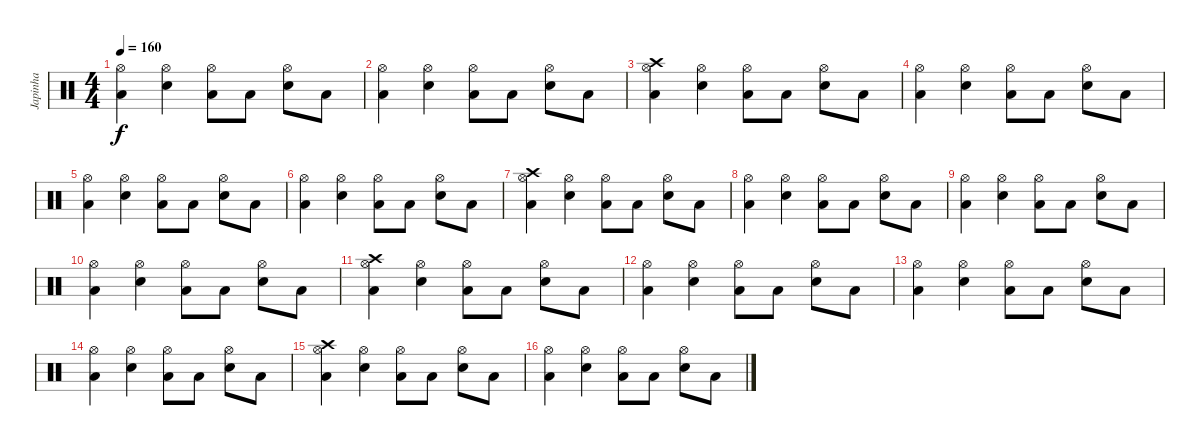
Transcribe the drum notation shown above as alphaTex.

\track ("Japinha" "Japinha") {instrument percussion}
\staff {score}
\articulation defaults
\ts (4 4)
\tempo 160
\clef neutral
\ks c
("Hi-Hat (open)" "Low Tom (hit)").4{dy f} ("Hi-Hat (open)" "Snare (hit) 2").4 ("Hi-Hat (open)" "Low Tom (hit)").8 "Low Tom (hit)".8 ("Hi-Hat (open)" "Snare (hit) 2").8 "Low Tom (hit)".8 |
("Hi-Hat (open)" "Low Tom (hit)").4 ("Hi-Hat (open)" "Snare (hit) 2").4 ("Hi-Hat (open)" "Low Tom (hit)").8 "Low Tom (hit)".8 ("Hi-Hat (open)" "Snare (hit) 2").8 "Low Tom (hit)".8 |
("Crash high (hit)" "Hi-Hat (open)" "Low Tom (hit)").4 ("Hi-Hat (open)" "Snare (hit) 2").4 ("Hi-Hat (open)" "Low Tom (hit)").8 "Low Tom (hit)".8 ("Hi-Hat (open)" "Snare (hit) 2").8 "Low Tom (hit)".8 |
("Hi-Hat (open)" "Low Tom (hit)").4 ("Hi-Hat (open)" "Snare (hit) 2").4 ("Hi-Hat (open)" "Low Tom (hit)").8 "Low Tom (hit)".8 ("Hi-Hat (open)" "Snare (hit) 2").8 "Low Tom (hit)".8 |
("Hi-Hat (open)" "Low Tom (hit)").4 ("Hi-Hat (open)" "Snare (hit) 2").4 ("Hi-Hat (open)" "Low Tom (hit)").8 "Low Tom (hit)".8 ("Hi-Hat (open)" "Snare (hit) 2").8 "Low Tom (hit)".8 |
("Hi-Hat (open)" "Low Tom (hit)").4 ("Hi-Hat (open)" "Snare (hit) 2").4 ("Hi-Hat (open)" "Low Tom (hit)").8 "Low Tom (hit)".8 ("Hi-Hat (open)" "Snare (hit) 2").8 "Low Tom (hit)".8 |
("Crash high (hit)" "Hi-Hat (open)" "Low Tom (hit)").4 ("Hi-Hat (open)" "Snare (hit) 2").4 ("Hi-Hat (open)" "Low Tom (hit)").8 "Low Tom (hit)".8 ("Hi-Hat (open)" "Snare (hit) 2").8 "Low Tom (hit)".8 |
("Hi-Hat (open)" "Low Tom (hit)").4 ("Hi-Hat (open)" "Snare (hit) 2").4 ("Hi-Hat (open)" "Low Tom (hit)").8 "Low Tom (hit)".8 ("Hi-Hat (open)" "Snare (hit) 2").8 "Low Tom (hit)".8 |
("Hi-Hat (open)" "Low Tom (hit)").4 ("Hi-Hat (open)" "Snare (hit) 2").4 ("Hi-Hat (open)" "Low Tom (hit)").8 "Low Tom (hit)".8 ("Hi-Hat (open)" "Snare (hit) 2").8 "Low Tom (hit)".8 |
("Hi-Hat (open)" "Low Tom (hit)").4 ("Hi-Hat (open)" "Snare (hit) 2").4 ("Hi-Hat (open)" "Low Tom (hit)").8 "Low Tom (hit)".8 ("Hi-Hat (open)" "Snare (hit) 2").8 "Low Tom (hit)".8 |
("Crash high (hit)" "Hi-Hat (open)" "Low Tom (hit)").4 ("Hi-Hat (open)" "Snare (hit) 2").4 ("Hi-Hat (open)" "Low Tom (hit)").8 "Low Tom (hit)".8 ("Hi-Hat (open)" "Snare (hit) 2").8 "Low Tom (hit)".8 |
("Hi-Hat (open)" "Low Tom (hit)").4 ("Hi-Hat (open)" "Snare (hit) 2").4 ("Hi-Hat (open)" "Low Tom (hit)").8 "Low Tom (hit)".8 ("Hi-Hat (open)" "Snare (hit) 2").8 "Low Tom (hit)".8 |
("Hi-Hat (open)" "Low Tom (hit)").4 ("Hi-Hat (open)" "Snare (hit) 2").4 ("Hi-Hat (open)" "Low Tom (hit)").8 "Low Tom (hit)".8 ("Hi-Hat (open)" "Snare (hit) 2").8 "Low Tom (hit)".8 |
("Hi-Hat (open)" "Low Tom (hit)").4 ("Hi-Hat (open)" "Snare (hit) 2").4 ("Hi-Hat (open)" "Low Tom (hit)").8 "Low Tom (hit)".8 ("Hi-Hat (open)" "Snare (hit) 2").8 "Low Tom (hit)".8 |
("Crash high (hit)" "Hi-Hat (open)" "Low Tom (hit)").4 ("Hi-Hat (open)" "Snare (hit) 2").4 ("Hi-Hat (open)" "Low Tom (hit)").8 "Low Tom (hit)".8 ("Hi-Hat (open)" "Snare (hit) 2").8 "Low Tom (hit)".8 |
("Hi-Hat (open)" "Low Tom (hit)").4 ("Hi-Hat (open)" "Snare (hit) 2").4 ("Hi-Hat (open)" "Low Tom (hit)").8 "Low Tom (hit)".8 ("Hi-Hat (open)" "Snare (hit) 2").8 "Low Tom (hit)".8
